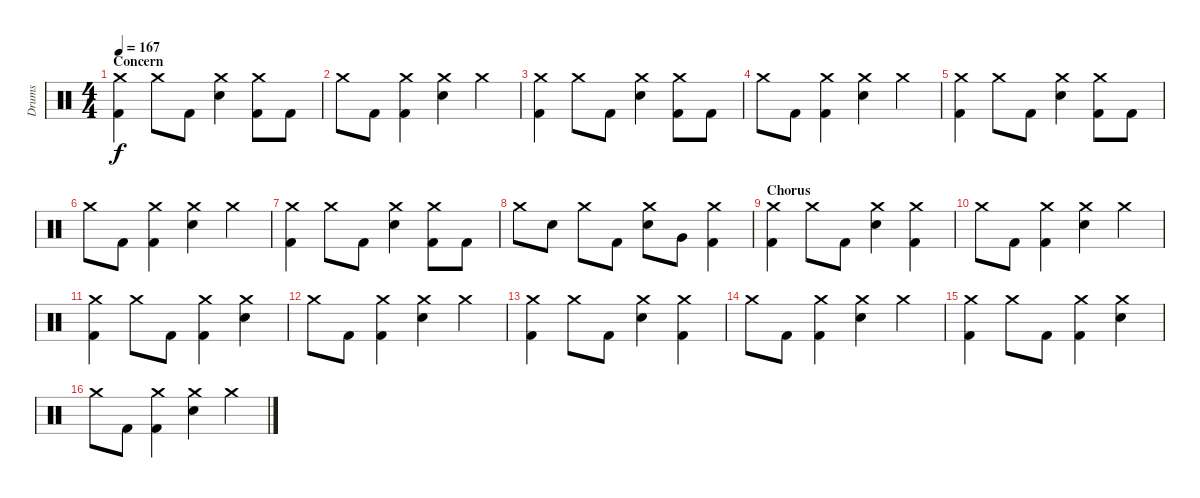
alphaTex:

\track ("Drums" "Drums") {instrument percussion}
\staff {score}
\articulation defaults
\ts (4 4)
\section ("" "Concern")
\tempo 167
\clef neutral
\ks c
("Crash medium (hit)" "Kick (hit) 2").4{dy f} "Crash medium (hit)".8 "Kick (hit) 2".8 ("Crash medium (hit)" "Electric Snare (hit)").4 ("Crash medium (hit)" "Kick (hit) 2").8 "Kick (hit) 2".8 |
"Crash medium (hit)".8 "Kick (hit) 2".8 ("Crash medium (hit)" "Kick (hit) 2").4 ("Crash medium (hit)" "Electric Snare (hit)").4 "Crash medium (hit)".4 |
("Crash medium (hit)" "Kick (hit) 2").4 "Crash medium (hit)".8 "Kick (hit) 2".8 ("Crash medium (hit)" "Electric Snare (hit)").4 ("Crash medium (hit)" "Kick (hit) 2").8 "Kick (hit) 2".8 |
"Crash medium (hit)".8 "Kick (hit) 2".8 ("Crash medium (hit)" "Kick (hit) 2").4 ("Crash medium (hit)" "Electric Snare (hit)").4 "Crash medium (hit)".4 |
("Crash medium (hit)" "Kick (hit) 2").4 "Crash medium (hit)".8 "Kick (hit) 2".8 ("Crash medium (hit)" "Electric Snare (hit)").4 ("Crash medium (hit)" "Kick (hit) 2").8 "Kick (hit) 2".8 |
"Crash medium (hit)".8 "Kick (hit) 2".8 ("Crash medium (hit)" "Kick (hit) 2").4 ("Crash medium (hit)" "Electric Snare (hit)").4 "Crash medium (hit)".4 |
("Crash medium (hit)" "Kick (hit) 2").4 "Crash medium (hit)".8 "Kick (hit) 2".8 ("Crash medium (hit)" "Electric Snare (hit)").4 ("Crash medium (hit)" "Kick (hit) 2").8 "Kick (hit) 2".8 |
"Crash medium (hit)".8 "Electric Snare (hit)".8 "Crash medium (hit)".8 "Kick (hit) 2".8 ("Crash medium (hit)" "Electric Snare (hit)").8 "Very Low Tom (hit)".8 ("Crash medium (hit)" "Kick (hit) 2").4 |
\section ("" "Chorus")
("Crash medium (hit)" "Kick (hit) 2").4 "Crash medium (hit)".8 "Kick (hit) 2".8 ("Crash medium (hit)" "Electric Snare (hit)").4 ("Crash medium (hit)" "Kick (hit) 2").4 |
"Crash medium (hit)".8 "Kick (hit) 2".8 ("Crash medium (hit)" "Kick (hit) 2").4 ("Crash medium (hit)" "Electric Snare (hit)").4 "Crash medium (hit)".4 |
("Crash medium (hit)" "Kick (hit) 2").4 "Crash medium (hit)".8 "Kick (hit) 2".8 ("Crash medium (hit)" "Kick (hit) 2").4 ("Crash medium (hit)" "Electric Snare (hit)").4 |
"Crash medium (hit)".8 "Kick (hit) 2".8 ("Crash medium (hit)" "Kick (hit) 2").4 ("Crash medium (hit)" "Electric Snare (hit)").4 "Crash medium (hit)".4 |
("Crash medium (hit)" "Kick (hit) 2").4 "Crash medium (hit)".8 "Kick (hit) 2".8 ("Crash medium (hit)" "Electric Snare (hit)").4 ("Crash medium (hit)" "Kick (hit) 2").4 |
"Crash medium (hit)".8 "Kick (hit) 2".8 ("Crash medium (hit)" "Kick (hit) 2").4 ("Crash medium (hit)" "Electric Snare (hit)").4 "Crash medium (hit)".4 |
("Crash medium (hit)" "Kick (hit) 2").4 "Crash medium (hit)".8 "Kick (hit) 2".8 ("Crash medium (hit)" "Kick (hit) 2").4 ("Crash medium (hit)" "Electric Snare (hit)").4 |
"Crash medium (hit)".8 "Kick (hit) 2".8 ("Crash medium (hit)" "Kick (hit) 2").4 ("Crash medium (hit)" "Electric Snare (hit)").4 "Crash medium (hit)".4
